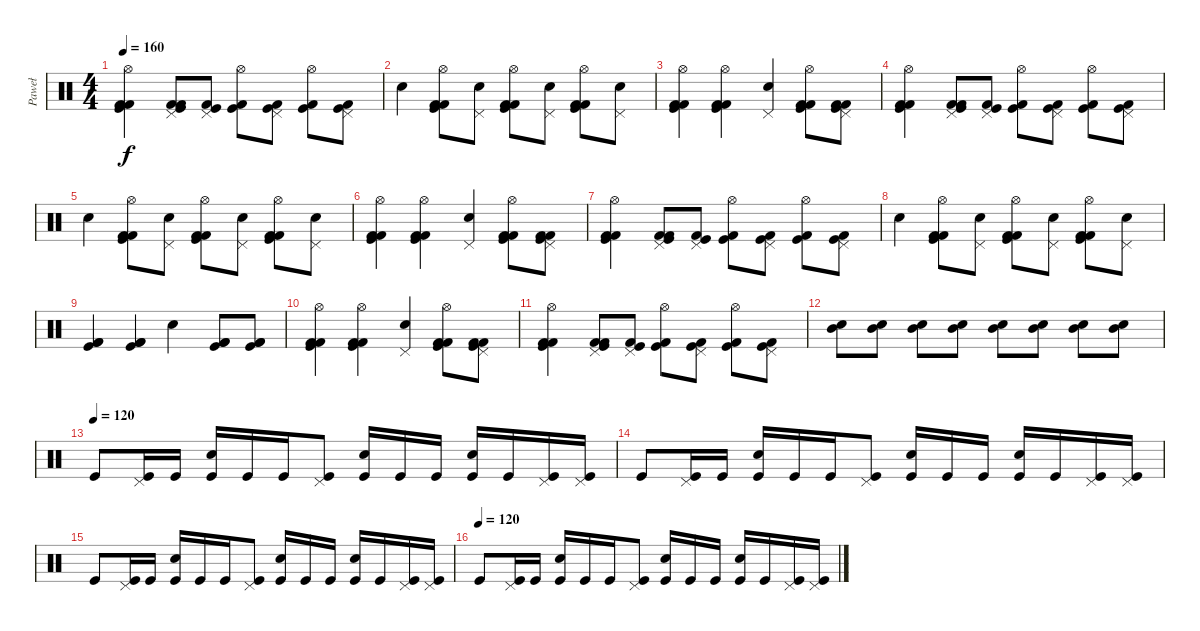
\track ("Paweł" "Paweł") {instrument percussion}
\staff {score}
\articulation defaults
\ts (4 4)
\tempo 160
\clef neutral
\ks c
("Hi-Hat (open)" "Kick (hit) 2" "Kick (hit)" "Kick (hit) 2").4{dy f} ("Pedal Hi-Hat (hit)" "Kick (hit) 2" "Kick (hit)" "Kick (hit) 2").8 ("Pedal Hi-Hat (hit)" "Kick (hit)" "Kick (hit) 2").8 ("Hi-Hat (open)" "Kick (hit)" "Kick (hit) 2").8 ("Pedal Hi-Hat (hit)" "Kick (hit)" "Kick (hit) 2").8 ("Hi-Hat (open)" "Kick (hit)" "Kick (hit) 2").8 ("Pedal Hi-Hat (hit)" "Kick (hit)" "Kick (hit) 2").8 |
"Snare (hit) 2".4 ("Kick (hit) 2" "Kick (hit) 2" "Hi-Hat (open)" "Kick (hit)").8 ("Pedal Hi-Hat (hit)" "Snare (hit) 2").8 ("Kick (hit) 2" "Kick (hit) 2" "Hi-Hat (open)" "Kick (hit)").8 ("Pedal Hi-Hat (hit)" "Snare (hit) 2").8 ("Kick (hit) 2" "Kick (hit) 2" "Hi-Hat (open)" "Kick (hit)").8 ("Pedal Hi-Hat (hit)" "Snare (hit) 2").8 |
("Hi-Hat (open)" "Kick (hit) 2" "Kick (hit)" "Kick (hit) 2").4 ("Hi-Hat (open)" "Kick (hit) 2" "Kick (hit)" "Kick (hit) 2").4 ("Pedal Hi-Hat (hit)" "Snare (hit) 2").4 ("Hi-Hat (open)" "Kick (hit) 2" "Kick (hit)" "Kick (hit) 2").8 ("Pedal Hi-Hat (hit)" "Kick (hit) 2" "Kick (hit)" "Kick (hit) 2").8 |
("Hi-Hat (open)" "Kick (hit) 2" "Kick (hit)" "Kick (hit) 2").4 ("Pedal Hi-Hat (hit)" "Kick (hit) 2" "Kick (hit)" "Kick (hit) 2").8 ("Pedal Hi-Hat (hit)" "Kick (hit)" "Kick (hit) 2").8 ("Hi-Hat (open)" "Kick (hit)" "Kick (hit) 2").8 ("Pedal Hi-Hat (hit)" "Kick (hit)" "Kick (hit) 2").8 ("Hi-Hat (open)" "Kick (hit)" "Kick (hit) 2").8 ("Pedal Hi-Hat (hit)" "Kick (hit)" "Kick (hit) 2").8 |
"Snare (hit) 2".4 ("Kick (hit) 2" "Kick (hit) 2" "Hi-Hat (open)" "Kick (hit)").8 ("Pedal Hi-Hat (hit)" "Snare (hit) 2").8 ("Kick (hit) 2" "Kick (hit) 2" "Hi-Hat (open)" "Kick (hit)").8 ("Pedal Hi-Hat (hit)" "Snare (hit) 2").8 ("Kick (hit) 2" "Kick (hit) 2" "Hi-Hat (open)" "Kick (hit)").8 ("Pedal Hi-Hat (hit)" "Snare (hit) 2").8 |
("Hi-Hat (open)" "Kick (hit) 2" "Kick (hit)" "Kick (hit) 2").4 ("Hi-Hat (open)" "Kick (hit) 2" "Kick (hit)" "Kick (hit) 2").4 ("Pedal Hi-Hat (hit)" "Snare (hit) 2").4 ("Hi-Hat (open)" "Kick (hit) 2" "Kick (hit)" "Kick (hit) 2").8 ("Pedal Hi-Hat (hit)" "Kick (hit) 2" "Kick (hit)" "Kick (hit) 2").8 |
("Hi-Hat (open)" "Kick (hit) 2" "Kick (hit)" "Kick (hit) 2").4 ("Pedal Hi-Hat (hit)" "Kick (hit) 2" "Kick (hit)" "Kick (hit) 2").8 ("Pedal Hi-Hat (hit)" "Kick (hit)" "Kick (hit) 2").8 ("Hi-Hat (open)" "Kick (hit)" "Kick (hit) 2").8 ("Pedal Hi-Hat (hit)" "Kick (hit)" "Kick (hit) 2").8 ("Hi-Hat (open)" "Kick (hit)" "Kick (hit) 2").8 ("Pedal Hi-Hat (hit)" "Kick (hit)" "Kick (hit) 2").8 |
"Snare (hit) 2".4 ("Kick (hit) 2" "Kick (hit) 2" "Hi-Hat (open)" "Kick (hit)").8 ("Pedal Hi-Hat (hit)" "Snare (hit) 2").8 ("Kick (hit) 2" "Kick (hit) 2" "Hi-Hat (open)" "Kick (hit)").8 ("Pedal Hi-Hat (hit)" "Snare (hit) 2").8 ("Kick (hit) 2" "Kick (hit) 2" "Hi-Hat (open)" "Kick (hit)").8 ("Pedal Hi-Hat (hit)" "Snare (hit) 2").8 |
("Kick (hit) 2" "Kick (hit)" "Kick (hit) 2").4 ("Kick (hit) 2" "Kick (hit)" "Kick (hit) 2").4 "Snare (hit) 2".4 ("Kick (hit) 2" "Kick (hit)" "Kick (hit) 2").8 ("Kick (hit) 2" "Kick (hit)" "Kick (hit) 2").8 |
("Hi-Hat (open)" "Kick (hit) 2" "Kick (hit)" "Kick (hit) 2").4 ("Hi-Hat (open)" "Kick (hit) 2" "Kick (hit)" "Kick (hit) 2").4 ("Pedal Hi-Hat (hit)" "Snare (hit) 2").4 ("Hi-Hat (open)" "Kick (hit) 2" "Kick (hit)" "Kick (hit) 2").8 ("Pedal Hi-Hat (hit)" "Kick (hit) 2" "Kick (hit)" "Kick (hit) 2").8 |
("Hi-Hat (open)" "Kick (hit) 2" "Kick (hit)" "Kick (hit) 2").4 ("Pedal Hi-Hat (hit)" "Kick (hit) 2" "Kick (hit)" "Kick (hit) 2").8 ("Pedal Hi-Hat (hit)" "Kick (hit)" "Kick (hit) 2").8 ("Hi-Hat (open)" "Kick (hit)" "Kick (hit) 2").8 ("Pedal Hi-Hat (hit)" "Kick (hit)" "Kick (hit) 2").8 ("Hi-Hat (open)" "Kick (hit)" "Kick (hit) 2").8 ("Pedal Hi-Hat (hit)" "Kick (hit)" "Kick (hit) 2").8 |
("Snare (hit) 2" "Mid Tom (hit)").8{volume 5} ("Snare (hit) 2" "Mid Tom (hit)").8{volume 6} ("Snare (hit) 2" "Mid Tom (hit)").8{volume 7} ("Snare (hit) 2" "Mid Tom (hit)").8{volume 8} ("Snare (hit) 2" "Mid Tom (hit)").8{volume 8} ("Snare (hit) 2" "Mid Tom (hit)").8{volume 9} ("Snare (hit) 2" "Mid Tom (hit)").8{volume 10} ("Snare (hit) 2" "Mid Tom (hit)").8{volume 16} |
\tempo (120)
"Kick (hit)".8 ("Pedal Hi-Hat (hit)" "Kick (hit)").16 "Kick (hit)".16 ("Snare (hit) 2" "Kick (hit)").16 "Kick (hit)".16 "Kick (hit)".16 ("Pedal Hi-Hat (hit)" "Kick (hit)").8 ("Snare (hit) 2" "Kick (hit)").16 "Kick (hit)".16 "Kick (hit)".16 ("Snare (hit) 2" "Kick (hit)").16 "Kick (hit)".16 ("Pedal Hi-Hat (hit)" "Kick (hit)").16 ("Pedal Hi-Hat (hit)" "Kick (hit)").16 |
"Kick (hit)".8 ("Pedal Hi-Hat (hit)" "Kick (hit)").16 "Kick (hit)".16 ("Snare (hit) 2" "Kick (hit)").16 "Kick (hit)".16 "Kick (hit)".16 ("Pedal Hi-Hat (hit)" "Kick (hit)").8 ("Snare (hit) 2" "Kick (hit)").16 "Kick (hit)".16 "Kick (hit)".16 ("Snare (hit) 2" "Kick (hit)").16 "Kick (hit)".16 ("Pedal Hi-Hat (hit)" "Kick (hit)").16 ("Pedal Hi-Hat (hit)" "Kick (hit)").16 |
"Kick (hit)".8 ("Pedal Hi-Hat (hit)" "Kick (hit)").16 "Kick (hit)".16 ("Snare (hit) 2" "Kick (hit)").16 "Kick (hit)".16 "Kick (hit)".16 ("Pedal Hi-Hat (hit)" "Kick (hit)").8 ("Snare (hit) 2" "Kick (hit)").16 "Kick (hit)".16 "Kick (hit)".16 ("Snare (hit) 2" "Kick (hit)").16 "Kick (hit)".16 ("Pedal Hi-Hat (hit)" "Kick (hit)").16 ("Pedal Hi-Hat (hit)" "Kick (hit)").16 |
\tempo (120)
"Kick (hit)".8 ("Pedal Hi-Hat (hit)" "Kick (hit)").16 "Kick (hit)".16 ("Snare (hit) 2" "Kick (hit)").16 "Kick (hit)".16 "Kick (hit)".16 ("Pedal Hi-Hat (hit)" "Kick (hit)").8 ("Snare (hit) 2" "Kick (hit)").16 "Kick (hit)".16 "Kick (hit)".16 ("Snare (hit) 2" "Kick (hit)").16 "Kick (hit)".16 ("Pedal Hi-Hat (hit)" "Kick (hit)").16 ("Pedal Hi-Hat (hit)" "Kick (hit)").16
